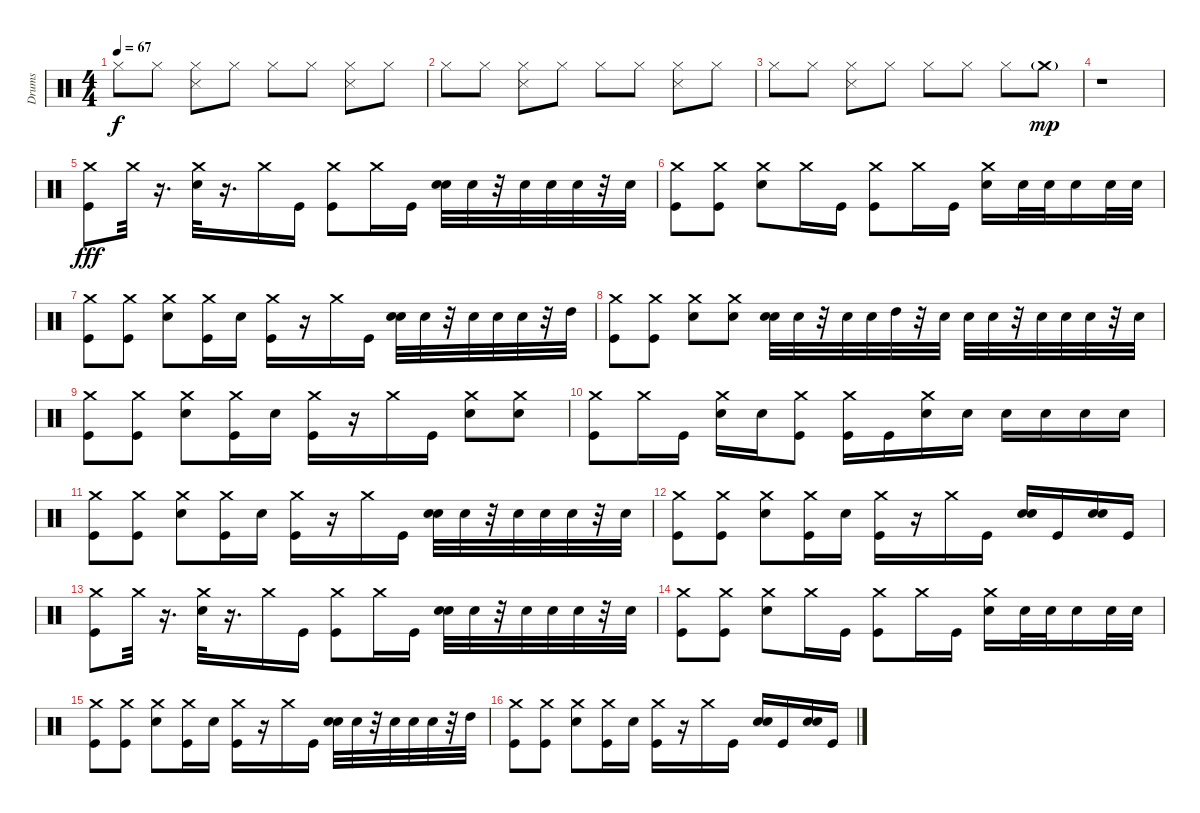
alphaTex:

\track ("Drums" "Drums") {instrument percussion}
\staff {score}
\articulation defaults
\ts (4 4)
\tempo 67
\clef neutral
\ks c "Hi-Hat (closed)".8{dy f} "Hi-Hat (closed)".8
("Snare (side stick) 3" "Hi-Hat (closed)").8 "Hi-Hat (closed)".8 "Hi-Hat (closed)".8 "Hi-Hat (closed)".8 ("Snare (side stick) 3" "Hi-Hat (closed)").8 "Hi-Hat (closed)".8 |
"Hi-Hat (closed)".8 "Hi-Hat (closed)".8 ("Snare (side stick) 3" "Hi-Hat (closed)").8 "Hi-Hat (closed)".8 "Hi-Hat (closed)".8 "Hi-Hat (closed)".8 ("Snare (side stick) 3" "Hi-Hat (closed)").8 "Hi-Hat (closed)".8 |
"Hi-Hat (closed)".8 "Hi-Hat (closed)".8 ("Snare (side stick) 3" "Hi-Hat (closed)").8 "Hi-Hat (closed)".8 "Hi-Hat (closed)".8 "Hi-Hat (closed)".8 "Hi-Hat (closed)".8 "Crash medium (hit)"{g}.8{dy mp} |
r.1 |
("Kick (hit)" "Crash medium (hit)").8{dy fff} "Crash medium (hit)".32 r.16{d} ("Snare (hit) 2" "Crash medium (hit)").32 r.16{d} "Crash medium (hit)".16 "Kick (hit)".16 ("Kick (hit)" "Crash medium (hit)").8 "Crash medium (hit)".16 "Kick (hit)".16 ("Snare (hit) 2" "Snare (hit) 2").32 "Snare (hit) 2".32 r.32 "Snare (hit) 2".32 "Snare (hit) 2".32 "Snare (hit) 2".32 r.32 "Snare (hit) 2".32 |
("Crash medium (hit)" "Kick (hit)").8 ("Crash medium (hit)" "Kick (hit)").8 ("Snare (hit) 2" "Crash medium (hit)").8 "Crash medium (hit)".16 "Kick (hit)".16 ("Kick (hit)" "Crash medium (hit)").8 "Crash medium (hit)".16 "Kick (hit)".16 ("Crash medium (hit)" "Snare (hit) 2").16 "Snare (hit) 2".32 "Snare (hit) 2".32 "Snare (hit) 2".16 "Snare (hit) 2".32 "Snare (hit) 2".32 |
("Crash medium (hit)" "Kick (hit)").8 ("Crash medium (hit)" "Kick (hit)").8 ("Crash medium (hit)" "Snare (hit) 2").8 ("Crash medium (hit)" "Kick (hit)").16 "Snare (hit) 2".16 ("Crash medium (hit)" "Kick (hit)").16 r.16 "Crash medium (hit)".16 "Kick (hit)".16 ("Snare (hit) 2" "Snare (hit) 2").32 "Snare (hit) 2".32 r.32 "Snare (hit) 2".32 "Snare (hit) 2".32 "Snare (hit) 2".32 r.32 "High Tom (hit)".32 |
("Crash medium (hit)" "Kick (hit)").8 ("Crash medium (hit)" "Kick (hit)").8 ("Snare (hit) 2" "Crash medium (hit)").8 ("Crash medium (hit)" "Snare (hit) 2").8 ("Snare (hit) 2" "Snare (hit) 2").32 "Snare (hit) 2".32 r.32 "Snare (hit) 2".32 "Snare (hit) 2".32 "High Tom (hit)".32 r.32 "Snare (hit) 2".32 "Snare (hit) 2".32 "Snare (hit) 2".32 r.32 "Snare (hit) 2".32 "Snare (hit) 2".32 "Snare (hit) 2".32 r.32 "Snare (hit) 2".32 |
("Crash medium (hit)" "Kick (hit)").8 ("Crash medium (hit)" "Kick (hit)").8 ("Snare (hit) 2" "Crash medium (hit)").8 ("Crash medium (hit)" "Kick (hit)").16 "Snare (hit) 2".16 ("Kick (hit)" "Crash medium (hit)").16 r.16 "Crash medium (hit)".16 "Kick (hit)".16 ("Crash medium (hit)" "Snare (hit) 2").8 ("Crash medium (hit)" "Snare (hit) 2").8 |
("Kick (hit)" "Crash medium (hit)").8 "Crash medium (hit)".16 "Kick (hit)".16 ("Crash medium (hit)" "Snare (hit) 2").16 "Snare (hit) 2".16 ("Kick (hit)" "Crash medium (hit)").8 ("Kick (hit)" "Crash medium (hit)").16 "Kick (hit)".16 ("Snare (hit) 2" "Crash medium (hit)").16 "Snare (hit) 2".16 "Snare (hit) 2".16 "Snare (hit) 2".16 "Snare (hit) 2".16 "Snare (hit) 2".16 |
("Crash medium (hit)" "Kick (hit)").8 ("Crash medium (hit)" "Kick (hit)").8 ("Crash medium (hit)" "Snare (hit) 2").8 ("Crash medium (hit)" "Kick (hit)").16 "Snare (hit) 2".16 ("Crash medium (hit)" "Kick (hit)").16 r.16 "Crash medium (hit)".16 "Kick (hit)".16 ("Snare (hit) 2" "Snare (hit) 2").32 "Snare (hit) 2".32 r.32 "Snare (hit) 2".32 "Snare (hit) 2".32 "Snare (hit) 2".32 r.32 "Snare (hit) 2".32 |
("Crash medium (hit)" "Kick (hit)").8 ("Crash medium (hit)" "Kick (hit)").8 ("Snare (hit) 2" "Crash medium (hit)").8 ("Crash medium (hit)" "Kick (hit)").16 "Snare (hit) 2".16 ("Crash medium (hit)" "Kick (hit)").16 r.16 "Crash medium (hit)".16 "Kick (hit)".16 ("Snare (hit) 2" "Snare (hit) 2").16 "Kick (hit)".16 ("Snare (hit) 2" "Snare (hit) 2").16 "Kick (hit)".16 |
("Kick (hit)" "Crash medium (hit)").8 "Crash medium (hit)".32 r.16{d} ("Snare (hit) 2" "Crash medium (hit)").32 r.16{d} "Crash medium (hit)".16 "Kick (hit)".16 ("Kick (hit)" "Crash medium (hit)").8 "Crash medium (hit)".16 "Kick (hit)".16 ("Snare (hit) 2" "Snare (hit) 2").32 "Snare (hit) 2".32 r.32 "Snare (hit) 2".32 "Snare (hit) 2".32 "Snare (hit) 2".32 r.32 "Snare (hit) 2".32 |
("Crash medium (hit)" "Kick (hit)").8 ("Crash medium (hit)" "Kick (hit)").8 ("Snare (hit) 2" "Crash medium (hit)").8 "Crash medium (hit)".16 "Kick (hit)".16 ("Kick (hit)" "Crash medium (hit)").8 "Crash medium (hit)".16 "Kick (hit)".16 ("Crash medium (hit)" "Snare (hit) 2").16 "Snare (hit) 2".32 "Snare (hit) 2".32 "Snare (hit) 2".16 "Snare (hit) 2".32 "Snare (hit) 2".32 |
("Crash medium (hit)" "Kick (hit)").8 ("Crash medium (hit)" "Kick (hit)").8 ("Crash medium (hit)" "Snare (hit) 2").8 ("Crash medium (hit)" "Kick (hit)").16 "Snare (hit) 2".16 ("Crash medium (hit)" "Kick (hit)").16 r.16 "Crash medium (hit)".16 "Kick (hit)".16 ("Snare (hit) 2" "Snare (hit) 2").32 "Snare (hit) 2".32 r.32 "Snare (hit) 2".32 "Snare (hit) 2".32 "Snare (hit) 2".32 r.32 "High Tom (hit)".32 |
("Crash medium (hit)" "Kick (hit)").8 ("Crash medium (hit)" "Kick (hit)").8 ("Snare (hit) 2" "Crash medium (hit)").8 ("Crash medium (hit)" "Kick (hit)").16 "Snare (hit) 2".16 ("Crash medium (hit)" "Kick (hit)").16 r.16 "Crash medium (hit)".16 "Kick (hit)".16 ("Snare (hit) 2" "Snare (hit) 2").16 "Kick (hit)".16 ("Snare (hit) 2" "Snare (hit) 2").16 "Kick (hit)".16
